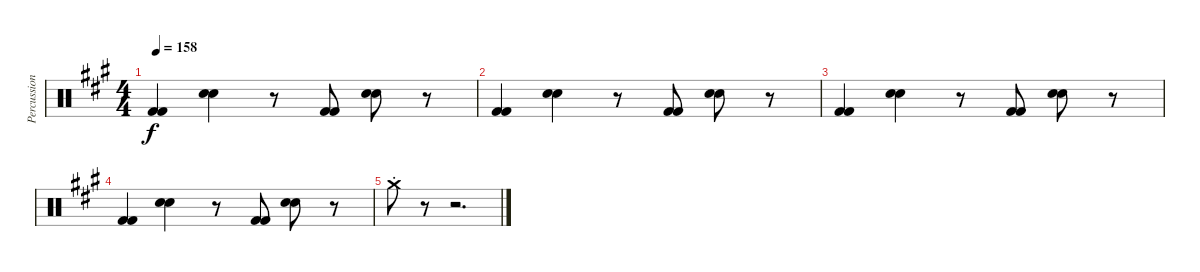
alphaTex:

\track ("Percussion" "Percussion") {instrument percussion}
\staff {score}
\articulation defaults
\ts (4 4)
\tempo 158
\clef neutral
\ks a
("Kick (hit) 2" "Kick (hit) 2").4{dy f} ("Snare (hit) 2" "Snare (hit) 2").4 r.8 ("Kick (hit) 2" "Kick (hit) 2").8 ("Snare (hit) 2" "Snare (hit) 2").8 r.8 |
("Kick (hit) 2" "Kick (hit) 2").4 ("Snare (hit) 2" "Snare (hit) 2").4 r.8 ("Kick (hit) 2" "Kick (hit) 2").8 ("Snare (hit) 2" "Snare (hit) 2").8 r.8 |
("Kick (hit) 2" "Kick (hit) 2").4 ("Snare (hit) 2" "Snare (hit) 2").4 r.8 ("Kick (hit) 2" "Kick (hit) 2").8 ("Snare (hit) 2" "Snare (hit) 2").8 r.8 |
("Kick (hit) 2" "Kick (hit) 2").4 ("Snare (hit) 2" "Snare (hit) 2").4 r.8 ("Kick (hit) 2" "Kick (hit) 2").8 ("Snare (hit) 2" "Snare (hit) 2").8 r.8 |
"Crash medium (hit)"{st}.8 r.8 r.2{d}
